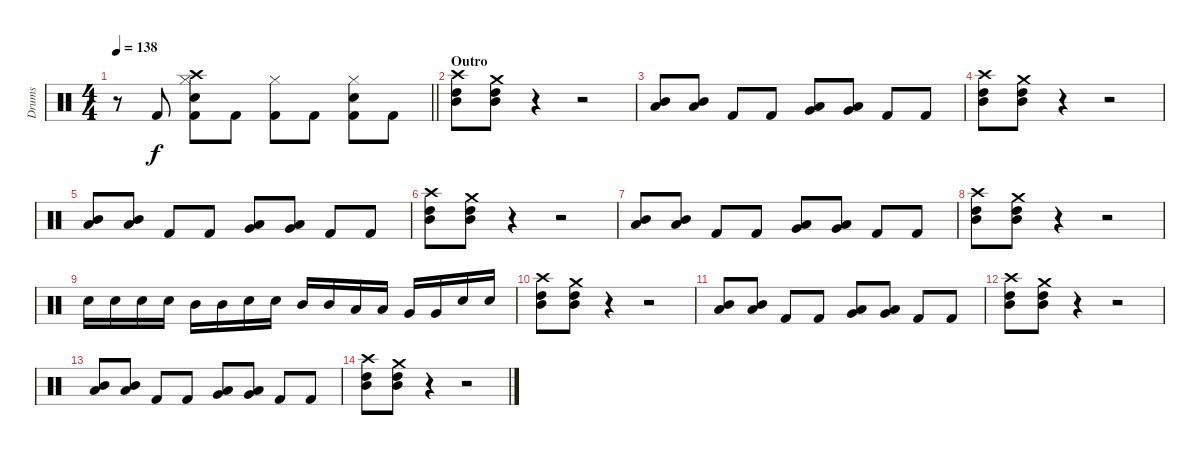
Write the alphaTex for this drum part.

\track ("Drums" "Drums") {instrument percussion}
\staff {score}
\articulation defaults
\ts (4 4)
\tempo 138
\clef neutral
\barLineRight lightlight
\ks c
r.8{dy f} "Kick (hit) 2".8 ("Crash high (hit)" "Snare (hit) 2" "Hi-Hat (closed)" "Kick (hit) 2").8 "Kick (hit) 2".8 ("Hi-Hat (closed)" "Kick (hit) 2").8 "Kick (hit) 2".8 ("Snare (hit) 2" "Hi-Hat (closed)" "Kick (hit) 2").8 "Kick (hit) 2".8 |
\section ("" "Outro")
("Crash high (hit)" "High Tom (hit)" "Mid Tom (hit)").8 ("Crash medium (hit)" "High Tom (hit)" "Mid Tom (hit)").8 r.4 r.2 |
("Mid Tom (hit)" "Low Tom (hit)").8 ("Mid Tom (hit)" "Low Tom (hit)").8 "Kick (hit) 2".8 "Kick (hit) 2".8 ("Low Tom (hit)" "Very Low Tom (hit)").8 ("Low Tom (hit)" "Very Low Tom (hit)").8 "Kick (hit) 2".8 "Kick (hit) 2".8 |
("Crash high (hit)" "High Tom (hit)" "Mid Tom (hit)").8 ("Crash medium (hit)" "High Tom (hit)" "Mid Tom (hit)").8 r.4 r.2 |
("Mid Tom (hit)" "Low Tom (hit)").8 ("Mid Tom (hit)" "Low Tom (hit)").8 "Kick (hit) 2".8 "Kick (hit) 2".8 ("Low Tom (hit)" "Very Low Tom (hit)").8 ("Low Tom (hit)" "Very Low Tom (hit)").8 "Kick (hit) 2".8 "Kick (hit) 2".8 |
("Crash high (hit)" "High Tom (hit)" "Mid Tom (hit)").8 ("Crash medium (hit)" "High Tom (hit)" "Mid Tom (hit)").8 r.4 r.2 |
("Mid Tom (hit)" "Low Tom (hit)").8 ("Mid Tom (hit)" "Low Tom (hit)").8 "Kick (hit) 2".8 "Kick (hit) 2".8 ("Low Tom (hit)" "Very Low Tom (hit)").8 ("Low Tom (hit)" "Very Low Tom (hit)").8 "Kick (hit) 2".8 "Kick (hit) 2".8 |
("Crash high (hit)" "High Tom (hit)" "Mid Tom (hit)").8 ("Crash medium (hit)" "High Tom (hit)" "Mid Tom (hit)").8 r.4 r.2 |
"Snare (hit) 2".16 "Snare (hit) 2".16 "Snare (hit) 2".16 "Snare (hit) 2".16 "Mid Tom (hit)".16 "Mid Tom (hit)".16 "Snare (hit) 2".16 "Snare (hit) 2".16 "Mid Tom (hit)".16 "Mid Tom (hit)".16 "Low Tom (hit)".16 "Low Tom (hit)".16 "Very Low Tom (hit)".16 "Very Low Tom (hit)".16 "Snare (hit) 2".16 "Snare (hit) 2".16 |
("Crash high (hit)" "High Tom (hit)" "Mid Tom (hit)").8 ("Crash medium (hit)" "High Tom (hit)" "Mid Tom (hit)").8 r.4 r.2 |
("Mid Tom (hit)" "Low Tom (hit)").8 ("Mid Tom (hit)" "Low Tom (hit)").8 "Kick (hit) 2".8 "Kick (hit) 2".8 ("Low Tom (hit)" "Very Low Tom (hit)").8 ("Low Tom (hit)" "Very Low Tom (hit)").8 "Kick (hit) 2".8 "Kick (hit) 2".8 |
("Crash high (hit)" "High Tom (hit)" "Mid Tom (hit)").8 ("Crash medium (hit)" "High Tom (hit)" "Mid Tom (hit)").8 r.4 r.2 |
("Mid Tom (hit)" "Low Tom (hit)").8 ("Mid Tom (hit)" "Low Tom (hit)").8 "Kick (hit) 2".8 "Kick (hit) 2".8 ("Low Tom (hit)" "Very Low Tom (hit)").8 ("Low Tom (hit)" "Very Low Tom (hit)").8 "Kick (hit) 2".8 "Kick (hit) 2".8 |
("Crash high (hit)" "High Tom (hit)" "Mid Tom (hit)").8 ("Crash medium (hit)" "High Tom (hit)" "Mid Tom (hit)").8 r.4 r.2
